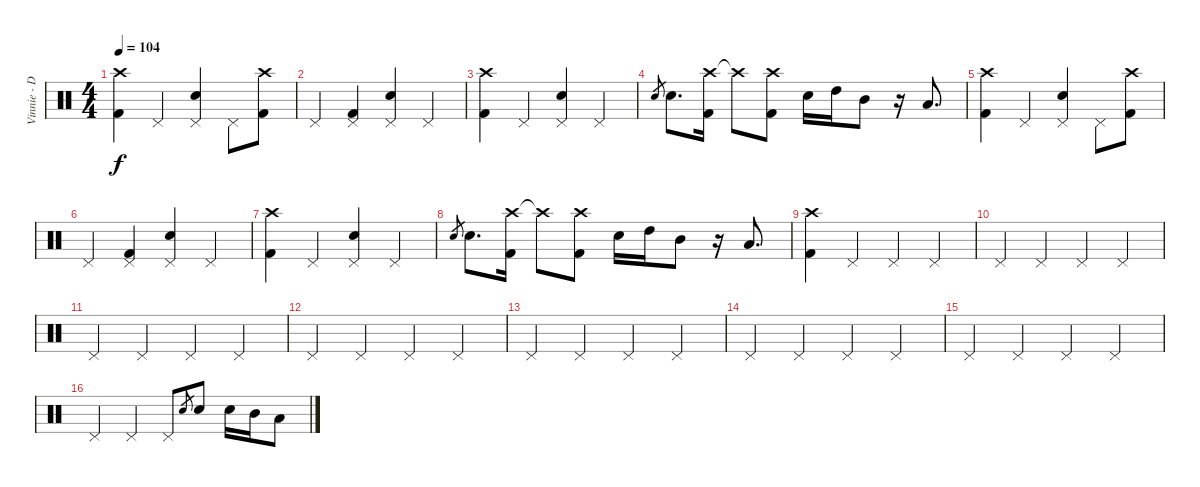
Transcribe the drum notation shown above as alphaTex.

\track ("Vinnie - Drums" "Vinnie - D") {instrument percussion}
\staff {score}
\articulation defaults
\ts (4 4)
\tempo 104
\clef neutral
\ks c
("Crash high (hit)" "Kick (hit) 2").4{dy f} "Pedal Hi-Hat (hit)".4 ("Pedal Hi-Hat (hit)" "Electric Snare (hit)").4 "Pedal Hi-Hat (hit)".8 ("Crash high (hit)" "Kick (hit) 2").8 |
"Pedal Hi-Hat (hit)".4 ("Pedal Hi-Hat (hit)" "Kick (hit) 2").4 ("Pedal Hi-Hat (hit)" "Electric Snare (hit)").4 "Pedal Hi-Hat (hit)".4 |
("Crash high (hit)" "Kick (hit) 2").4 "Pedal Hi-Hat (hit)".4 ("Pedal Hi-Hat (hit)" "Electric Snare (hit)").4 "Pedal Hi-Hat (hit)".4 |
"Electric Snare (hit)".8{gr} "Electric Snare (hit)".8{d} ("Crash high (hit)" "Kick (hit) 2").16 "Crash high (hit)"{t}.8 ("Crash high (hit)" "Kick (hit) 2").8 "Electric Snare (hit)".16 "High Tom (hit)".16 "Mid Tom (hit)".8 r.16 "Low Tom (hit)".8{d} |
("Crash high (hit)" "Kick (hit) 2").4 "Pedal Hi-Hat (hit)".4 ("Pedal Hi-Hat (hit)" "Electric Snare (hit)").4 "Pedal Hi-Hat (hit)".8 ("Crash high (hit)" "Kick (hit) 2").8 |
"Pedal Hi-Hat (hit)".4 ("Pedal Hi-Hat (hit)" "Kick (hit) 2").4 ("Pedal Hi-Hat (hit)" "Electric Snare (hit)").4 "Pedal Hi-Hat (hit)".4 |
("Crash high (hit)" "Kick (hit) 2").4 "Pedal Hi-Hat (hit)".4 ("Pedal Hi-Hat (hit)" "Electric Snare (hit)").4 "Pedal Hi-Hat (hit)".4 |
"Electric Snare (hit)".8{gr} "Electric Snare (hit)".8{d} ("Crash high (hit)" "Kick (hit) 2").16 "Crash high (hit)"{t}.8 ("Crash high (hit)" "Kick (hit) 2").8 "Electric Snare (hit)".16 "High Tom (hit)".16 "Mid Tom (hit)".8 r.16 "Low Tom (hit)".8{d} |
("Crash high (hit)" "Kick (hit) 2").4 "Pedal Hi-Hat (hit)".4 "Pedal Hi-Hat (hit)".4 "Pedal Hi-Hat (hit)".4 |
"Pedal Hi-Hat (hit)".4 "Pedal Hi-Hat (hit)".4 "Pedal Hi-Hat (hit)".4 "Pedal Hi-Hat (hit)".4 |
"Pedal Hi-Hat (hit)".4 "Pedal Hi-Hat (hit)".4 "Pedal Hi-Hat (hit)".4 "Pedal Hi-Hat (hit)".4 |
"Pedal Hi-Hat (hit)".4 "Pedal Hi-Hat (hit)".4 "Pedal Hi-Hat (hit)".4 "Pedal Hi-Hat (hit)".4 |
"Pedal Hi-Hat (hit)".4 "Pedal Hi-Hat (hit)".4 "Pedal Hi-Hat (hit)".4 "Pedal Hi-Hat (hit)".4 |
"Pedal Hi-Hat (hit)".4 "Pedal Hi-Hat (hit)".4 "Pedal Hi-Hat (hit)".4 "Pedal Hi-Hat (hit)".4 |
"Pedal Hi-Hat (hit)".4 "Pedal Hi-Hat (hit)".4 "Pedal Hi-Hat (hit)".4 "Pedal Hi-Hat (hit)".4 |
"Pedal Hi-Hat (hit)".4 "Pedal Hi-Hat (hit)".4 "Pedal Hi-Hat (hit)".8 "Electric Snare (hit)".8{gr} "Electric Snare (hit)".8 "Electric Snare (hit)".16 "Mid Tom (hit)".16 "Low Tom (hit)".8
